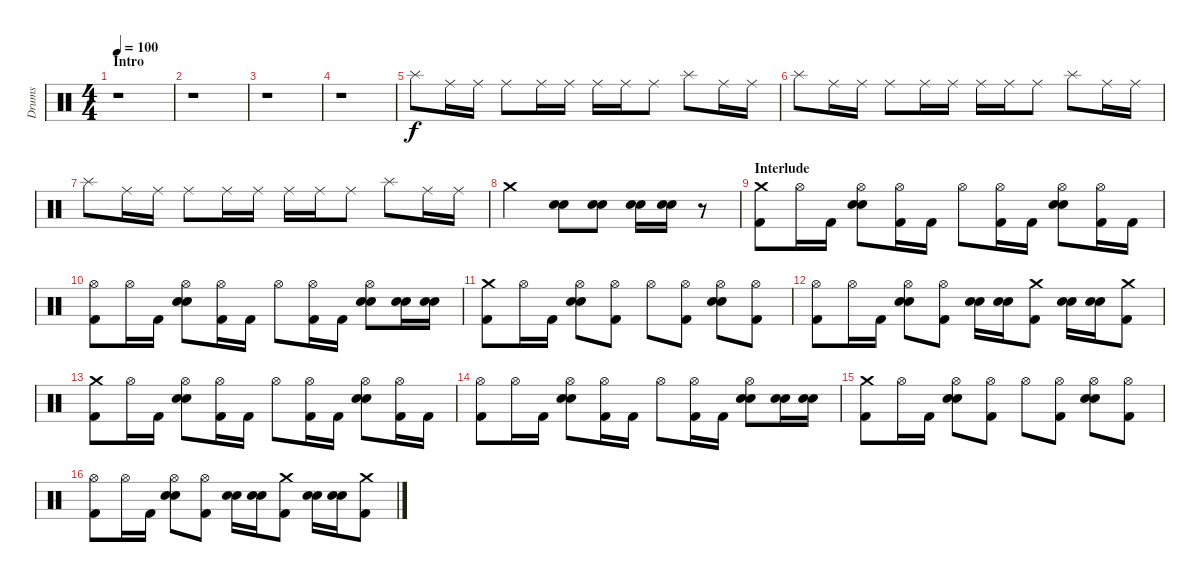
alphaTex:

\track ("Drums" "Drums") {instrument percussion}
\staff {score}
\articulation defaults
\ts (4 4)
\section ("" "Intro")
\tempo 100
\clef neutral
\ks c
r.1{dy f} |
r.1 |
r.1 |
r.1 |
"Splash (hit)".8 "Ride (middle)".16 "Ride (middle)".16 "Ride (middle)".8 "Ride (middle)".16 "Ride (middle)".16 "Ride (middle)".16 "Ride (middle)".16 "Ride (middle)".8 "Splash (hit)".8 "Ride (middle)".16 "Ride (middle)".16 |
"Splash (hit)".8 "Ride (middle)".16 "Ride (middle)".16 "Ride (middle)".8 "Ride (middle)".16 "Ride (middle)".16 "Ride (middle)".16 "Ride (middle)".16 "Ride (middle)".8 "Splash (hit)".8 "Ride (middle)".16 "Ride (middle)".16 |
"Splash (hit)".8 "Ride (middle)".16 "Ride (middle)".16 "Ride (middle)".8 "Ride (middle)".16 "Ride (middle)".16 "Ride (middle)".16 "Ride (middle)".16 "Ride (middle)".8 "Splash (hit)".8 "Ride (middle)".16 "Ride (middle)".16 |
"Crash medium (hit)".2 ("Electric Snare (hit)" "Snare (hit) 2").8 ("Electric Snare (hit)" "Snare (hit) 2").8 ("Electric Snare (hit)" "Snare (hit) 2").16 ("Electric Snare (hit)" "Snare (hit) 2").16 r.8 |
\section ("" "Interlude")
("Crash medium (hit)" "Kick (hit) 2").8 "Hi-Hat (open)".16 "Kick (hit) 2".16 ("Hi-Hat (open)" "Electric Snare (hit)" "Snare (hit) 2").8 ("Hi-Hat (open)" "Kick (hit) 2").16 "Kick (hit) 2".16 "Hi-Hat (open)".8 ("Hi-Hat (open)" "Kick (hit) 2").16 "Kick (hit) 2".16 ("Hi-Hat (open)" "Electric Snare (hit)" "Snare (hit) 2").8 ("Hi-Hat (open)" "Kick (hit) 2").16 "Kick (hit) 2".16 |
("Hi-Hat (open)" "Kick (hit) 2").8 "Hi-Hat (open)".16 "Kick (hit) 2".16 ("Hi-Hat (open)" "Electric Snare (hit)" "Snare (hit) 2").8 ("Hi-Hat (open)" "Kick (hit) 2").16 "Kick (hit) 2".16 "Hi-Hat (open)".8 ("Hi-Hat (open)" "Kick (hit) 2").16 "Kick (hit) 2".16 ("Hi-Hat (open)" "Electric Snare (hit)" "Snare (hit) 2").8 ("Electric Snare (hit)" "Snare (hit) 2").16 ("Electric Snare (hit)" "Snare (hit) 2").16 |
("Crash medium (hit)" "Kick (hit) 2").8 "Hi-Hat (open)".16 "Kick (hit) 2".16 ("Hi-Hat (open)" "Electric Snare (hit)" "Snare (hit) 2").8 ("Hi-Hat (open)" "Kick (hit) 2").8 "Hi-Hat (open)".8 ("Hi-Hat (open)" "Kick (hit) 2").8 ("Hi-Hat (open)" "Electric Snare (hit)" "Snare (hit) 2").8 ("Hi-Hat (open)" "Kick (hit) 2").8 |
("Hi-Hat (open)" "Kick (hit) 2").8 "Hi-Hat (open)".16 "Kick (hit) 2".16 ("Hi-Hat (open)" "Electric Snare (hit)" "Snare (hit) 2").8 ("Hi-Hat (open)" "Kick (hit) 2").8 ("Electric Snare (hit)" "Snare (hit) 2").16 ("Electric Snare (hit)" "Snare (hit) 2").16 ("Crash medium (hit)" "Kick (hit) 2").8 ("Electric Snare (hit)" "Snare (hit) 2").16 ("Electric Snare (hit)" "Snare (hit) 2").16 ("Crash medium (hit)" "Kick (hit) 2").8 |
("Crash medium (hit)" "Kick (hit) 2").8 "Hi-Hat (open)".16 "Kick (hit) 2".16 ("Hi-Hat (open)" "Electric Snare (hit)" "Snare (hit) 2").8 ("Hi-Hat (open)" "Kick (hit) 2").16 "Kick (hit) 2".16 "Hi-Hat (open)".8 ("Hi-Hat (open)" "Kick (hit) 2").16 "Kick (hit) 2".16 ("Hi-Hat (open)" "Electric Snare (hit)" "Snare (hit) 2").8 ("Hi-Hat (open)" "Kick (hit) 2").16 "Kick (hit) 2".16 |
("Hi-Hat (open)" "Kick (hit) 2").8 "Hi-Hat (open)".16 "Kick (hit) 2".16 ("Hi-Hat (open)" "Electric Snare (hit)" "Snare (hit) 2").8 ("Hi-Hat (open)" "Kick (hit) 2").16 "Kick (hit) 2".16 "Hi-Hat (open)".8 ("Hi-Hat (open)" "Kick (hit) 2").16 "Kick (hit) 2".16 ("Hi-Hat (open)" "Electric Snare (hit)" "Snare (hit) 2").8 ("Electric Snare (hit)" "Snare (hit) 2").16 ("Electric Snare (hit)" "Snare (hit) 2").16 |
("Crash medium (hit)" "Kick (hit) 2").8 "Hi-Hat (open)".16 "Kick (hit) 2".16 ("Hi-Hat (open)" "Electric Snare (hit)" "Snare (hit) 2").8 ("Hi-Hat (open)" "Kick (hit) 2").8 "Hi-Hat (open)".8 ("Hi-Hat (open)" "Kick (hit) 2").8 ("Hi-Hat (open)" "Electric Snare (hit)" "Snare (hit) 2").8 ("Hi-Hat (open)" "Kick (hit) 2").8 |
("Hi-Hat (open)" "Kick (hit) 2").8 "Hi-Hat (open)".16 "Kick (hit) 2".16 ("Hi-Hat (open)" "Electric Snare (hit)" "Snare (hit) 2").8 ("Hi-Hat (open)" "Kick (hit) 2").8 ("Electric Snare (hit)" "Snare (hit) 2").16 ("Electric Snare (hit)" "Snare (hit) 2").16 ("Crash medium (hit)" "Kick (hit) 2").8 ("Electric Snare (hit)" "Snare (hit) 2").16 ("Electric Snare (hit)" "Snare (hit) 2").16 ("Crash medium (hit)" "Kick (hit) 2").8
